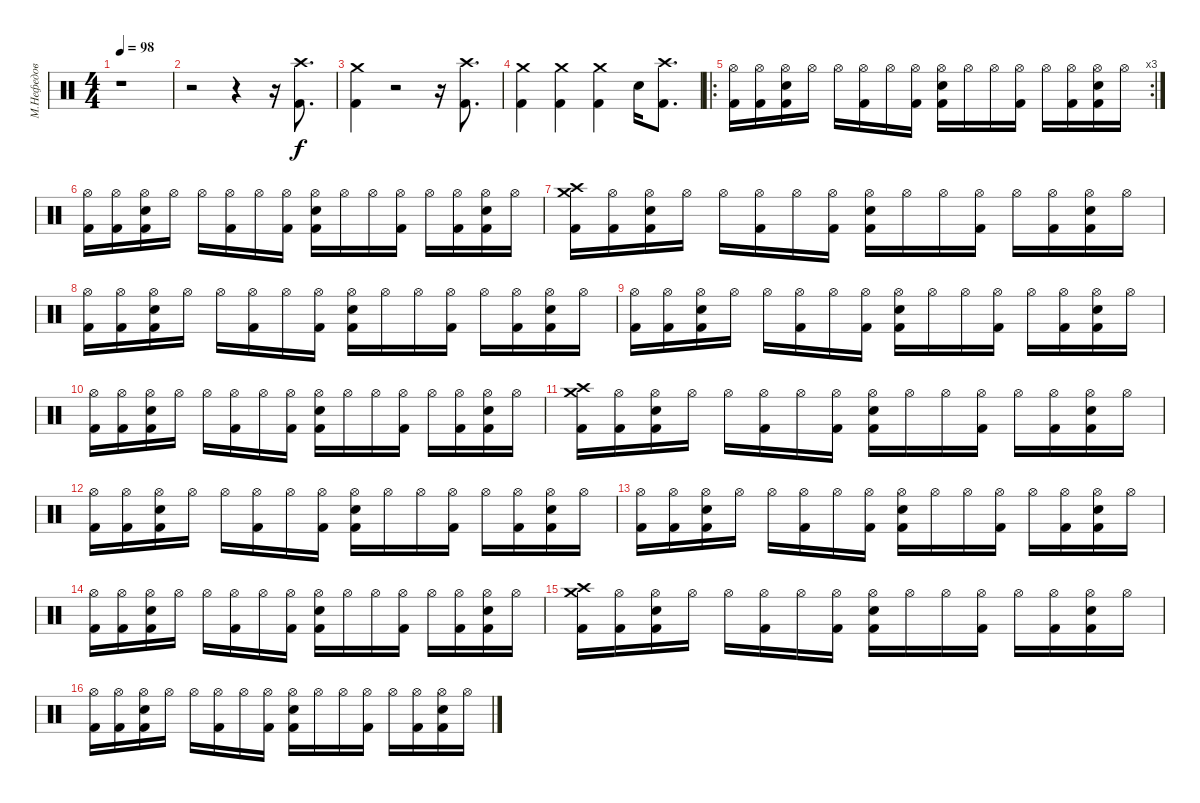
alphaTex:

\track ("М.Нефедов" "М.Нефедов") {instrument percussion}
\staff {score}
\articulation defaults
\ts (4 4)
\tempo 98
\clef neutral
\ks c
r.1{dy f} |
r.2 r.4 r.16 ("Crash high (hit)" "Kick (hit) 2").8{d} |
("Crash medium (hit)" "Kick (hit) 2").4 r.2 r.16 ("Crash high (hit)" "Kick (hit) 2").8{d} |
("Crash medium (hit)" "Kick (hit) 2").4 ("Crash medium (hit)" "Kick (hit) 2").4 ("Crash medium (hit)" "Kick (hit) 2").4 "Snare (hit) 2".16 ("Crash high (hit)" "Kick (hit) 2").8{d} |
\ro
\rc 3
("Hi-Hat (open)" "Kick (hit) 2").16 ("Hi-Hat (open)" "Kick (hit) 2").16 ("Hi-Hat (open)" "Snare (hit) 2" "Kick (hit) 2").16 "Hi-Hat (open)".16 "Hi-Hat (open)".16 ("Hi-Hat (open)" "Kick (hit) 2").16 "Hi-Hat (open)".16 ("Hi-Hat (open)" "Kick (hit) 2").16 ("Hi-Hat (open)" "Snare (hit) 2" "Kick (hit) 2").16 "Hi-Hat (open)".16 "Hi-Hat (open)".16 ("Hi-Hat (open)" "Kick (hit) 2").16 "Hi-Hat (open)".16 ("Hi-Hat (open)" "Kick (hit) 2").16 ("Hi-Hat (open)" "Snare (hit) 2" "Kick (hit) 2").16 "Hi-Hat (open)".16 |
("Hi-Hat (open)" "Kick (hit) 2").16 ("Hi-Hat (open)" "Kick (hit) 2").16 ("Hi-Hat (open)" "Snare (hit) 2" "Kick (hit) 2").16 "Hi-Hat (open)".16 "Hi-Hat (open)".16 ("Hi-Hat (open)" "Kick (hit) 2").16 "Hi-Hat (open)".16 ("Hi-Hat (open)" "Kick (hit) 2").16 ("Hi-Hat (open)" "Snare (hit) 2" "Kick (hit) 2").16 "Hi-Hat (open)".16 "Hi-Hat (open)".16 ("Hi-Hat (open)" "Kick (hit) 2").16 "Hi-Hat (open)".16 ("Hi-Hat (open)" "Kick (hit) 2").16 ("Hi-Hat (open)" "Snare (hit) 2" "Kick (hit) 2").16 "Hi-Hat (open)".16 |
("Crash medium (hit)" "Crash high (hit)" "Kick (hit) 2").16 ("Hi-Hat (open)" "Kick (hit) 2").16 ("Hi-Hat (open)" "Snare (hit) 2" "Kick (hit) 2").16 "Hi-Hat (open)".16 "Hi-Hat (open)".16 ("Hi-Hat (open)" "Kick (hit) 2").16 "Hi-Hat (open)".16 ("Hi-Hat (open)" "Kick (hit) 2").16 ("Hi-Hat (open)" "Snare (hit) 2" "Kick (hit) 2").16 "Hi-Hat (open)".16 "Hi-Hat (open)".16 ("Hi-Hat (open)" "Kick (hit) 2").16 "Hi-Hat (open)".16 ("Hi-Hat (open)" "Kick (hit) 2").16 ("Hi-Hat (open)" "Snare (hit) 2" "Kick (hit) 2").16 "Hi-Hat (open)".16 |
("Hi-Hat (open)" "Kick (hit) 2").16 ("Hi-Hat (open)" "Kick (hit) 2").16 ("Hi-Hat (open)" "Snare (hit) 2" "Kick (hit) 2").16 "Hi-Hat (open)".16 "Hi-Hat (open)".16 ("Hi-Hat (open)" "Kick (hit) 2").16 "Hi-Hat (open)".16 ("Hi-Hat (open)" "Kick (hit) 2").16 ("Hi-Hat (open)" "Snare (hit) 2" "Kick (hit) 2").16 "Hi-Hat (open)".16 "Hi-Hat (open)".16 ("Hi-Hat (open)" "Kick (hit) 2").16 "Hi-Hat (open)".16 ("Hi-Hat (open)" "Kick (hit) 2").16 ("Hi-Hat (open)" "Snare (hit) 2" "Kick (hit) 2").16 "Hi-Hat (open)".16 |
("Hi-Hat (open)" "Kick (hit) 2").16 ("Hi-Hat (open)" "Kick (hit) 2").16 ("Hi-Hat (open)" "Snare (hit) 2" "Kick (hit) 2").16 "Hi-Hat (open)".16 "Hi-Hat (open)".16 ("Hi-Hat (open)" "Kick (hit) 2").16 "Hi-Hat (open)".16 ("Hi-Hat (open)" "Kick (hit) 2").16 ("Hi-Hat (open)" "Snare (hit) 2" "Kick (hit) 2").16 "Hi-Hat (open)".16 "Hi-Hat (open)".16 ("Hi-Hat (open)" "Kick (hit) 2").16 "Hi-Hat (open)".16 ("Hi-Hat (open)" "Kick (hit) 2").16 ("Hi-Hat (open)" "Snare (hit) 2" "Kick (hit) 2").16 "Hi-Hat (open)".16 |
("Hi-Hat (open)" "Kick (hit) 2").16 ("Hi-Hat (open)" "Kick (hit) 2").16 ("Hi-Hat (open)" "Snare (hit) 2" "Kick (hit) 2").16 "Hi-Hat (open)".16 "Hi-Hat (open)".16 ("Hi-Hat (open)" "Kick (hit) 2").16 "Hi-Hat (open)".16 ("Hi-Hat (open)" "Kick (hit) 2").16 ("Hi-Hat (open)" "Snare (hit) 2" "Kick (hit) 2").16 "Hi-Hat (open)".16 "Hi-Hat (open)".16 ("Hi-Hat (open)" "Kick (hit) 2").16 "Hi-Hat (open)".16 ("Hi-Hat (open)" "Kick (hit) 2").16 ("Hi-Hat (open)" "Snare (hit) 2" "Kick (hit) 2").16 "Hi-Hat (open)".16 |
("Crash medium (hit)" "Crash high (hit)" "Kick (hit) 2").16 ("Hi-Hat (open)" "Kick (hit) 2").16 ("Hi-Hat (open)" "Snare (hit) 2" "Kick (hit) 2").16 "Hi-Hat (open)".16 "Hi-Hat (open)".16 ("Hi-Hat (open)" "Kick (hit) 2").16 "Hi-Hat (open)".16 ("Hi-Hat (open)" "Kick (hit) 2").16 ("Hi-Hat (open)" "Snare (hit) 2" "Kick (hit) 2").16 "Hi-Hat (open)".16 "Hi-Hat (open)".16 ("Hi-Hat (open)" "Kick (hit) 2").16 "Hi-Hat (open)".16 ("Hi-Hat (open)" "Kick (hit) 2").16 ("Hi-Hat (open)" "Snare (hit) 2" "Kick (hit) 2").16 "Hi-Hat (open)".16 |
("Hi-Hat (open)" "Kick (hit) 2").16 ("Hi-Hat (open)" "Kick (hit) 2").16 ("Hi-Hat (open)" "Snare (hit) 2" "Kick (hit) 2").16 "Hi-Hat (open)".16 "Hi-Hat (open)".16 ("Hi-Hat (open)" "Kick (hit) 2").16 "Hi-Hat (open)".16 ("Hi-Hat (open)" "Kick (hit) 2").16 ("Hi-Hat (open)" "Snare (hit) 2" "Kick (hit) 2").16 "Hi-Hat (open)".16 "Hi-Hat (open)".16 ("Hi-Hat (open)" "Kick (hit) 2").16 "Hi-Hat (open)".16 ("Hi-Hat (open)" "Kick (hit) 2").16 ("Hi-Hat (open)" "Snare (hit) 2" "Kick (hit) 2").16 "Hi-Hat (open)".16 |
("Hi-Hat (open)" "Kick (hit) 2").16 ("Hi-Hat (open)" "Kick (hit) 2").16 ("Hi-Hat (open)" "Snare (hit) 2" "Kick (hit) 2").16 "Hi-Hat (open)".16 "Hi-Hat (open)".16 ("Hi-Hat (open)" "Kick (hit) 2").16 "Hi-Hat (open)".16 ("Hi-Hat (open)" "Kick (hit) 2").16 ("Hi-Hat (open)" "Snare (hit) 2" "Kick (hit) 2").16 "Hi-Hat (open)".16 "Hi-Hat (open)".16 ("Hi-Hat (open)" "Kick (hit) 2").16 "Hi-Hat (open)".16 ("Hi-Hat (open)" "Kick (hit) 2").16 ("Hi-Hat (open)" "Snare (hit) 2" "Kick (hit) 2").16 "Hi-Hat (open)".16 |
("Hi-Hat (open)" "Kick (hit) 2").16 ("Hi-Hat (open)" "Kick (hit) 2").16 ("Hi-Hat (open)" "Snare (hit) 2" "Kick (hit) 2").16 "Hi-Hat (open)".16 "Hi-Hat (open)".16 ("Hi-Hat (open)" "Kick (hit) 2").16 "Hi-Hat (open)".16 ("Hi-Hat (open)" "Kick (hit) 2").16 ("Hi-Hat (open)" "Snare (hit) 2" "Kick (hit) 2").16 "Hi-Hat (open)".16 "Hi-Hat (open)".16 ("Hi-Hat (open)" "Kick (hit) 2").16 "Hi-Hat (open)".16 ("Hi-Hat (open)" "Kick (hit) 2").16 ("Hi-Hat (open)" "Snare (hit) 2" "Kick (hit) 2").16 "Hi-Hat (open)".16 |
("Crash medium (hit)" "Crash high (hit)" "Kick (hit) 2").16 ("Hi-Hat (open)" "Kick (hit) 2").16 ("Hi-Hat (open)" "Snare (hit) 2" "Kick (hit) 2").16 "Hi-Hat (open)".16 "Hi-Hat (open)".16 ("Hi-Hat (open)" "Kick (hit) 2").16 "Hi-Hat (open)".16 ("Hi-Hat (open)" "Kick (hit) 2").16 ("Hi-Hat (open)" "Snare (hit) 2" "Kick (hit) 2").16 "Hi-Hat (open)".16 "Hi-Hat (open)".16 ("Hi-Hat (open)" "Kick (hit) 2").16 "Hi-Hat (open)".16 ("Hi-Hat (open)" "Kick (hit) 2").16 ("Hi-Hat (open)" "Snare (hit) 2" "Kick (hit) 2").16 "Hi-Hat (open)".16 |
("Hi-Hat (open)" "Kick (hit) 2").16 ("Hi-Hat (open)" "Kick (hit) 2").16 ("Hi-Hat (open)" "Snare (hit) 2" "Kick (hit) 2").16 "Hi-Hat (open)".16 "Hi-Hat (open)".16 ("Hi-Hat (open)" "Kick (hit) 2").16 "Hi-Hat (open)".16 ("Hi-Hat (open)" "Kick (hit) 2").16 ("Hi-Hat (open)" "Snare (hit) 2" "Kick (hit) 2").16 "Hi-Hat (open)".16 "Hi-Hat (open)".16 ("Hi-Hat (open)" "Kick (hit) 2").16 "Hi-Hat (open)".16 ("Hi-Hat (open)" "Kick (hit) 2").16 ("Hi-Hat (open)" "Snare (hit) 2" "Kick (hit) 2").16 "Hi-Hat (open)".16
